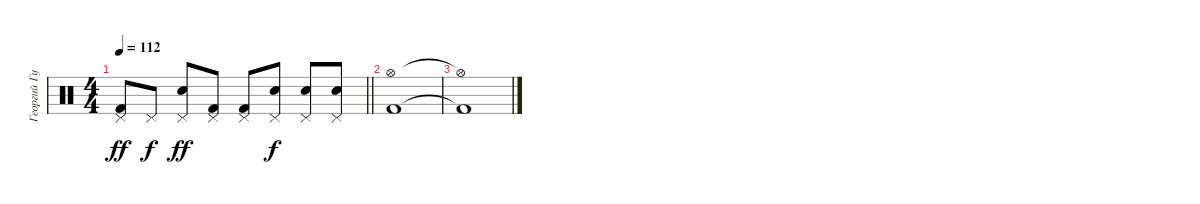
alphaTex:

\track ("Георгий Гурьянов" "Георгий Гу") {instrument percussion}
\staff {score}
\articulation defaults
\ts (4 4)
\tempo 112
\clef neutral
\barLineRight lightlight
\ks c
("Pedal Hi-Hat (hit)" "Kick (hit) 2").8{dy ff} "Pedal Hi-Hat (hit)".8{dy f} ("Pedal Hi-Hat (hit)" "Electric Snare (hit)").8{dy ff} ("Pedal Hi-Hat (hit)" "Kick (hit) 2").8 ("Pedal Hi-Hat (hit)" "Kick (hit) 2").8 ("Pedal Hi-Hat (hit)" "Electric Snare (hit)").8{dy f} ("Pedal Hi-Hat (hit)" "Electric Snare (hit)").8 ("Pedal Hi-Hat (hit)" "Electric Snare (hit)").8 |
("Hi-Hat (open)" "Kick (hit) 2").1 |
("Hi-Hat (open)"{t} "Kick (hit) 2"{t}).1
